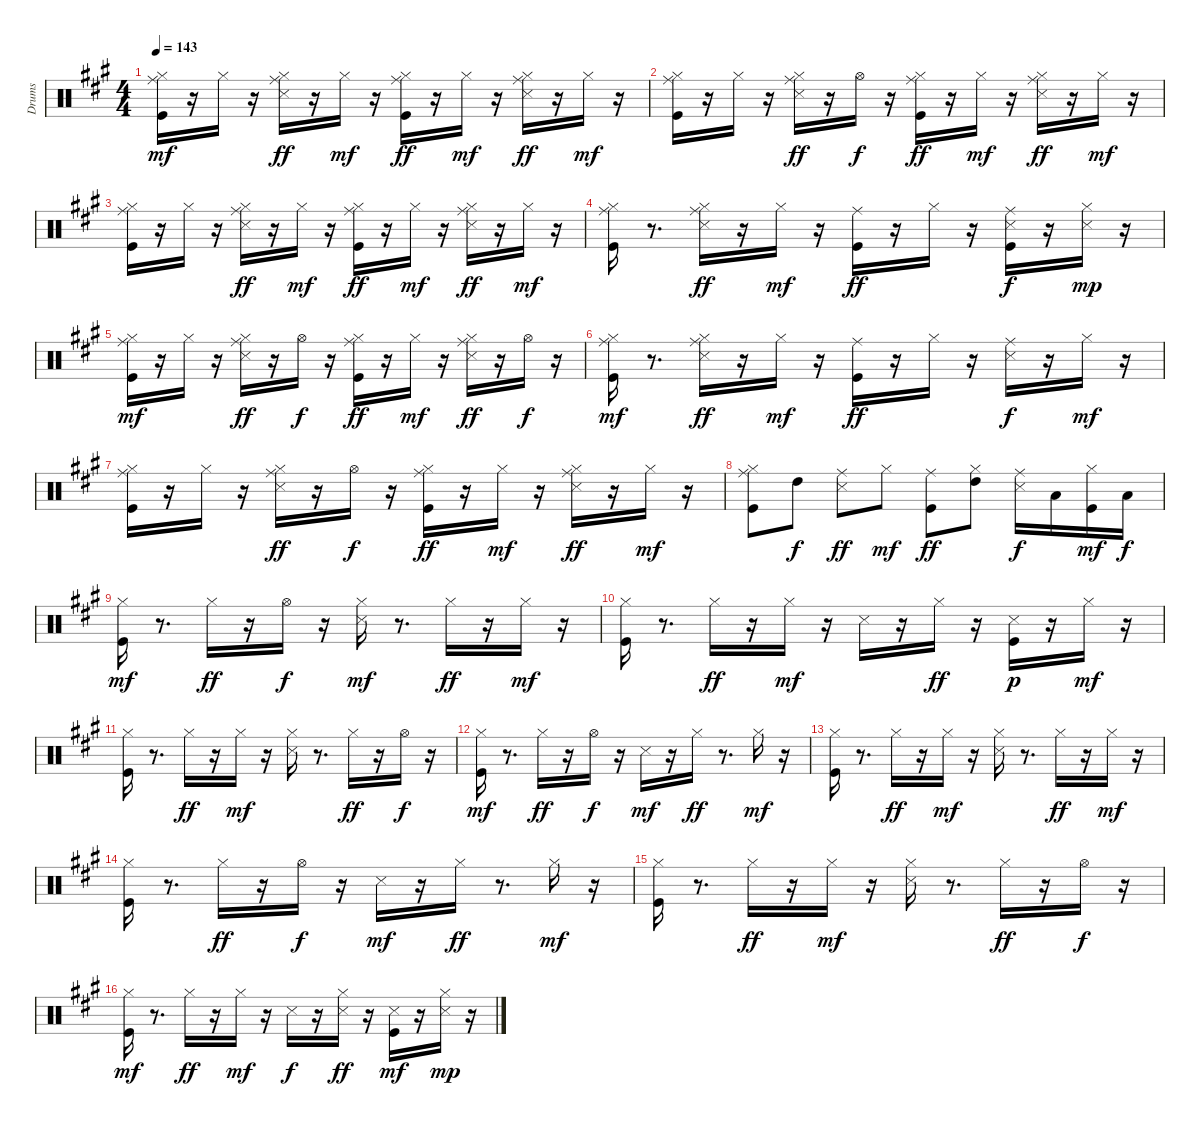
\track ("Drums" "Drums") {instrument percussion}
\staff {score}
\articulation defaults
\ts (4 4)
\tempo 143
\clef neutral
\ks a
("Kick (hit)" "Hi-Hat (closed)" "Ride (middle)").16{dy mf} r.16 "Hi-Hat (closed)".16 r.16 ("Hi-Hat (closed)" "Snare (side stick) 3" "Ride (middle)").16{dy ff} r.16 "Hi-Hat (closed)".16{dy mf} r.16 ("Kick (hit)" "Hi-Hat (closed)" "Ride (middle)").16{dy ff} r.16 "Hi-Hat (closed)".16{dy mf} r.16 ("Hi-Hat (closed)" "Snare (side stick) 3" "Ride (middle)").16{dy ff} r.16 "Hi-Hat (closed)".16{dy mf} r.16 |
("Kick (hit)" "Hi-Hat (closed)" "Ride (middle)").16 r.16 "Hi-Hat (closed)".16 r.16 ("Hi-Hat (closed)" "Snare (side stick) 3" "Ride (middle)").16{dy ff} r.16 "Hi-Hat (open)".16{dy f} r.16 ("Kick (hit)" "Hi-Hat (closed)" "Ride (middle)").16{dy ff} r.16 "Hi-Hat (closed)".16{dy mf} r.16 ("Hi-Hat (closed)" "Snare (side stick) 3" "Ride (middle)").16{dy ff} r.16 "Hi-Hat (closed)".16{dy mf} r.16 |
("Kick (hit)" "Hi-Hat (closed)" "Ride (middle)").16 r.16 "Hi-Hat (closed)".16 r.16 ("Hi-Hat (closed)" "Snare (side stick) 3" "Ride (middle)").16{dy ff} r.16 "Hi-Hat (closed)".16{dy mf} r.16 ("Kick (hit)" "Hi-Hat (closed)" "Ride (middle)").16{dy ff} r.16 "Hi-Hat (closed)".16{dy mf} r.16 ("Hi-Hat (closed)" "Snare (side stick) 3" "Ride (middle)").16{dy ff} r.16 "Hi-Hat (closed)".16{dy mf} r.16 |
("Kick (hit)" "Hi-Hat (closed)" "Ride (middle)").16 r.8{d} ("Hi-Hat (closed)" "Snare (side stick) 3" "Ride (middle)").16{dy ff} r.16 "Hi-Hat (closed)".16{dy mf} r.16 ("Kick (hit)" "Ride (middle)").16{dy ff} r.16 "Hi-Hat (closed)".16 r.16 ("Kick (hit)" "Snare (side stick) 3" "Ride (middle)").16{dy f} r.16 ("Hi-Hat (closed)" "Snare (side stick) 3").16{dy mp} r.16 |
("Kick (hit)" "Hi-Hat (closed)" "Ride (middle)").16{dy mf} r.16 "Hi-Hat (closed)".16 r.16 ("Hi-Hat (closed)" "Snare (side stick) 3" "Ride (middle)").16{dy ff} r.16 "Hi-Hat (open)".16{dy f} r.16 ("Kick (hit)" "Hi-Hat (closed)" "Ride (middle)").16{dy ff} r.16 "Hi-Hat (closed)".16{dy mf} r.16 ("Hi-Hat (closed)" "Snare (side stick) 3" "Ride (middle)").16{dy ff} r.16 "Hi-Hat (open)".16{dy f} r.16 |
("Kick (hit)" "Hi-Hat (closed)" "Ride (middle)").16{dy mf} r.8{d} ("Hi-Hat (closed)" "Snare (side stick) 3" "Ride (middle)").16{dy ff} r.16 "Hi-Hat (closed)".16{dy mf} r.16 ("Kick (hit)" "Ride (middle)").16{dy ff} r.16 "Hi-Hat (closed)".16 r.16 ("Snare (side stick) 3" "Ride (middle)").16{dy f} r.16 "Hi-Hat (closed)".16{dy mf} r.16 |
("Kick (hit)" "Hi-Hat (closed)" "Ride (middle)").16 r.16 "Hi-Hat (closed)".16 r.16 ("Hi-Hat (closed)" "Snare (side stick) 3" "Ride (middle)").16{dy ff} r.16 "Hi-Hat (open)".16{dy f} r.16 ("Kick (hit)" "Hi-Hat (closed)" "Ride (middle)").16{dy ff} r.16 "Hi-Hat (closed)".16{dy mf} r.16 ("Hi-Hat (closed)" "Snare (side stick) 3" "Ride (middle)").16{dy ff} r.16 "Hi-Hat (closed)".16{dy mf} r.16 |
("Hi-Hat (closed)" "Ride (middle)" "Kick (hit)").8 "High Tom (hit)".8{dy f} ("Ride (middle)" "Snare (side stick) 3").8{dy ff} "Hi-Hat (closed)".8{dy mf} ("Ride (middle)" "Kick (hit)").8{dy ff} ("Hi-Hat (closed)" "High Tom (hit)").8 ("Ride (middle)" "Snare (side stick) 3").16{dy f} "Low Tom (hit)".16 ("Hi-Hat (closed)" "Kick (hit)").16{dy mf} "Low Floor Tom (hit)".16{dy f} |
("Kick (hit)" "Hi-Hat (closed)").16{dy mf} r.8{d} "Hi-Hat (closed)".16{dy ff} r.16 "Hi-Hat (open)".16{dy f} r.16 ("Hi-Hat (closed)" "Snare (side stick) 3").16{dy mf} r.8{d} "Hi-Hat (closed)".16{dy ff} r.16 "Hi-Hat (closed)".16{dy mf} r.16 |
("Kick (hit)" "Hi-Hat (closed)").16 r.8{d} "Hi-Hat (closed)".16{dy ff} r.16 "Hi-Hat (closed)".16{dy mf} r.16 "Snare (side stick) 3".16 r.16 "Hi-Hat (closed)".16{dy ff} r.16 ("Kick (hit)" "Snare (side stick) 3").16{dy p} r.16 "Hi-Hat (closed)".16{dy mf} r.16 |
("Kick (hit)" "Hi-Hat (closed)").16 r.8{d} "Hi-Hat (closed)".16{dy ff} r.16 "Hi-Hat (closed)".16{dy mf} r.16 ("Hi-Hat (closed)" "Snare (side stick) 3").16 r.8{d} "Hi-Hat (closed)".16{dy ff} r.16 "Hi-Hat (open)".16{dy f} r.16 |
("Kick (hit)" "Hi-Hat (closed)").16{dy mf} r.8{d} "Hi-Hat (closed)".16{dy ff} r.16 "Hi-Hat (open)".16{dy f} r.16 "Snare (side stick) 3".16{dy mf} r.16 "Hi-Hat (closed)".16{dy ff} r.8{d} "Hi-Hat (closed)".16{dy mf} r.16 |
("Kick (hit)" "Hi-Hat (closed)").16 r.8{d} "Hi-Hat (closed)".16{dy ff} r.16 "Hi-Hat (closed)".16{dy mf} r.16 ("Hi-Hat (closed)" "Snare (side stick) 3").16 r.8{d} "Hi-Hat (closed)".16{dy ff} r.16 "Hi-Hat (closed)".16{dy mf} r.16 |
("Kick (hit)" "Hi-Hat (closed)").16 r.8{d} "Hi-Hat (closed)".16{dy ff} r.16 "Hi-Hat (open)".16{dy f} r.16 "Snare (side stick) 3".16{dy mf} r.16 "Hi-Hat (closed)".16{dy ff} r.8{d} "Hi-Hat (closed)".16{dy mf} r.16 |
("Kick (hit)" "Hi-Hat (closed)").16 r.8{d} "Hi-Hat (closed)".16{dy ff} r.16 "Hi-Hat (closed)".16{dy mf} r.16 ("Hi-Hat (closed)" "Snare (side stick) 3").16 r.8{d} "Hi-Hat (closed)".16{dy ff} r.16 "Hi-Hat (open)".16{dy f} r.16 |
("Kick (hit)" "Hi-Hat (closed)").16{dy mf} r.8{d} "Hi-Hat (closed)".16{dy ff} r.16 "Hi-Hat (closed)".16{dy mf} r.16 "Snare (side stick) 3".16{dy f} r.16 ("Hi-Hat (closed)" "Snare (side stick) 3").16{dy ff} r.16 ("Kick (hit)" "Snare (side stick) 3").16{dy mf} r.16 ("Hi-Hat (closed)" "Snare (side stick) 3").16{dy mp} r.16
